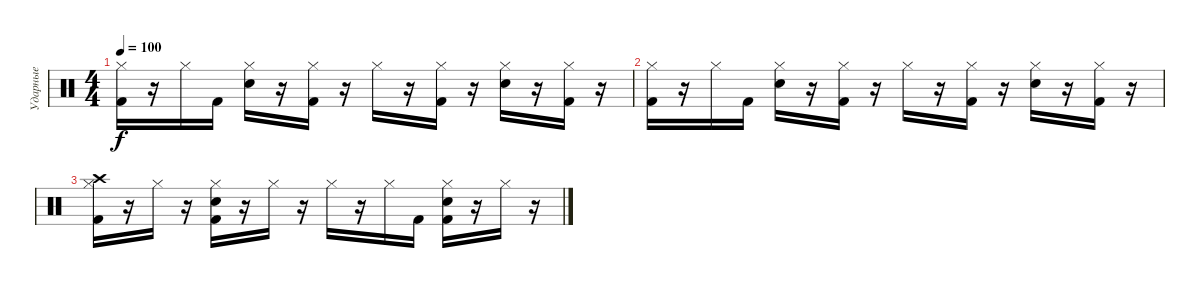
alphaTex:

\track ("Ударные" "Ударные") {instrument percussion}
\staff {score}
\articulation defaults
\ts (4 4)
\tempo 100
\clef neutral
\ks c
("Hi-Hat (closed)" "Kick (hit) 2").16{dy f} r.16 "Hi-Hat (closed)".16 "Kick (hit) 2".16 ("Hi-Hat (closed)" "Electric Snare (hit)").16 r.16 ("Hi-Hat (closed)" "Kick (hit) 2").16 r.16 "Hi-Hat (closed)".16 r.16 ("Hi-Hat (closed)" "Kick (hit) 2").16 r.16 ("Hi-Hat (closed)" "Electric Snare (hit)").16 r.16 ("Hi-Hat (closed)" "Kick (hit) 2").16 r.16 |
("Hi-Hat (closed)" "Kick (hit) 2").16 r.16 "Hi-Hat (closed)".16 "Kick (hit) 2".16 ("Hi-Hat (closed)" "Electric Snare (hit)").16 r.16 ("Hi-Hat (closed)" "Kick (hit) 2").16 r.16 "Hi-Hat (closed)".16 r.16 ("Hi-Hat (closed)" "Kick (hit) 2").16 r.16 ("Hi-Hat (closed)" "Electric Snare (hit)").16 r.16 ("Hi-Hat (closed)" "Kick (hit) 2").16 r.16 |
("Hi-Hat (closed)" "Kick (hit) 2" "Crash high (hit)").16 r.16 "Hi-Hat (closed)".16 r.16 ("Hi-Hat (closed)" "Kick (hit) 2" "Electric Snare (hit)").16 r.16 "Hi-Hat (closed)".16 r.16 "Hi-Hat (closed)".16 r.16 "Hi-Hat (closed)".16 "Kick (hit) 2".16 ("Hi-Hat (closed)" "Kick (hit) 2" "Electric Snare (hit)").16 r.16 "Hi-Hat (closed)".16 r.16
